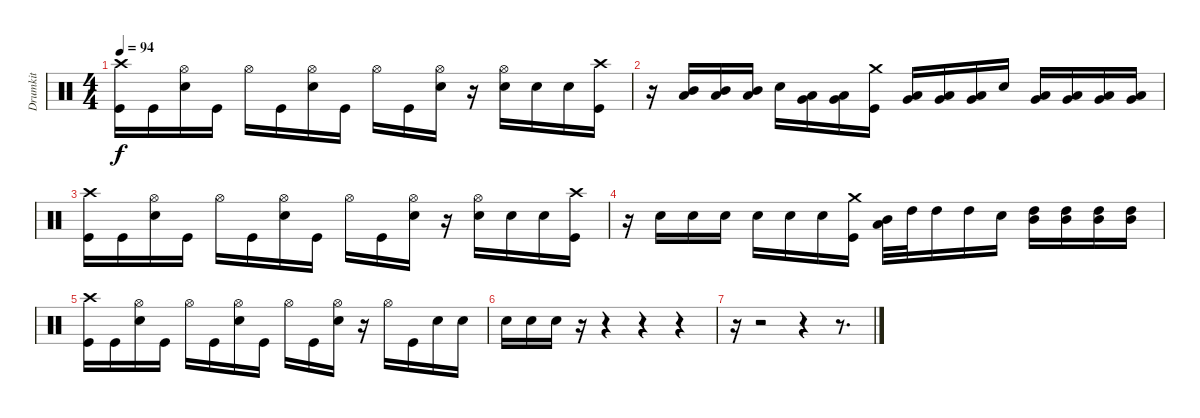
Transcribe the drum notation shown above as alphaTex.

\track ("Drumkit" "Drumkit") {instrument percussion}
\staff {score}
\articulation defaults
\ts (4 4)
\tempo 94
\clef neutral
\ks c
("Crash high (hit)" "Kick (hit)").16{dy f} "Kick (hit)".16 ("Hi-Hat (open)" "Snare (hit) 2").16 "Kick (hit)".16 "Hi-Hat (open)".16 "Kick (hit)".16 ("Hi-Hat (open)" "Snare (hit) 2").16 "Kick (hit)".16 "Hi-Hat (open)".16 "Kick (hit)".16 ("Hi-Hat (open)" "Snare (hit) 2").16 r.16 ("Hi-Hat (open)" "Snare (hit) 2").16 "Snare (hit) 2".16 "Snare (hit) 2".16 ("Crash high (hit)" "Kick (hit)").16 |
r.16 ("Mid Tom (hit)" "Low Tom (hit)").16 ("Mid Tom (hit)" "Low Tom (hit)").16 ("Mid Tom (hit)" "Low Tom (hit)").16 "Snare (hit) 2".16 ("Low Tom (hit)" "Very Low Tom (hit)").16 ("Low Tom (hit)" "Very Low Tom (hit)").16 ("Crash medium (hit)" "Kick (hit)").16 ("Low Tom (hit)" "Very Low Tom (hit)").16 ("Low Tom (hit)" "Very Low Tom (hit)").16 ("Low Tom (hit)" "Very Low Tom (hit)").16 "Snare (hit) 2".16 ("Very Low Tom (hit)" "Low Floor Tom (hit)").16 ("Very Low Tom (hit)" "Low Floor Tom (hit)").16 ("Very Low Tom (hit)" "Low Floor Tom (hit)").16 ("Very Low Tom (hit)" "Low Floor Tom (hit)").16 |
("Crash high (hit)" "Kick (hit)").16 "Kick (hit)".16 ("Hi-Hat (open)" "Snare (hit) 2").16 "Kick (hit)".16 "Hi-Hat (open)".16 "Kick (hit)".16 ("Hi-Hat (open)" "Snare (hit) 2").16 "Kick (hit)".16 "Hi-Hat (open)".16 "Kick (hit)".16 ("Hi-Hat (open)" "Snare (hit) 2").16 r.16 ("Hi-Hat (open)" "Snare (hit) 2").16 "Snare (hit) 2".16 "Snare (hit) 2".16 ("Crash high (hit)" "Kick (hit)").16 |
r.16 "Snare (hit) 2".16 "Snare (hit) 2".16 "Snare (hit) 2".16 "Snare (hit) 2".16 "Snare (hit) 2".16 "Snare (hit) 2".16 ("Crash medium (hit)" "Kick (hit)").16 ("Low Tom (hit)" "Mid Tom (hit)").32 "High Tom (hit)".32 "High Tom (hit)".16 "High Tom (hit)".16 "Snare (hit) 2".16 ("High Tom (hit)" "Mid Tom (hit)").16 ("High Tom (hit)" "Mid Tom (hit)").16 ("High Tom (hit)" "Mid Tom (hit)").16 ("High Tom (hit)" "Mid Tom (hit)").16 |
("Crash high (hit)" "Kick (hit)").16 "Kick (hit)".16 ("Hi-Hat (open)" "Snare (hit) 2").16 "Kick (hit)".16 "Hi-Hat (open)".16 "Kick (hit)".16 ("Hi-Hat (open)" "Snare (hit) 2").16 "Kick (hit)".16 "Hi-Hat (open)".16 "Kick (hit)".16 ("Hi-Hat (open)" "Snare (hit) 2").16 r.16 "Hi-Hat (open)".16 "Kick (hit)".16 "Snare (hit) 2".16 "Snare (hit) 2".16 |
"Snare (hit) 2".16 "Snare (hit) 2".16 "Snare (hit) 2".16 r.16 r.4 r.4 r.4 |
r.16 r.2 r.4 r.8{d}
